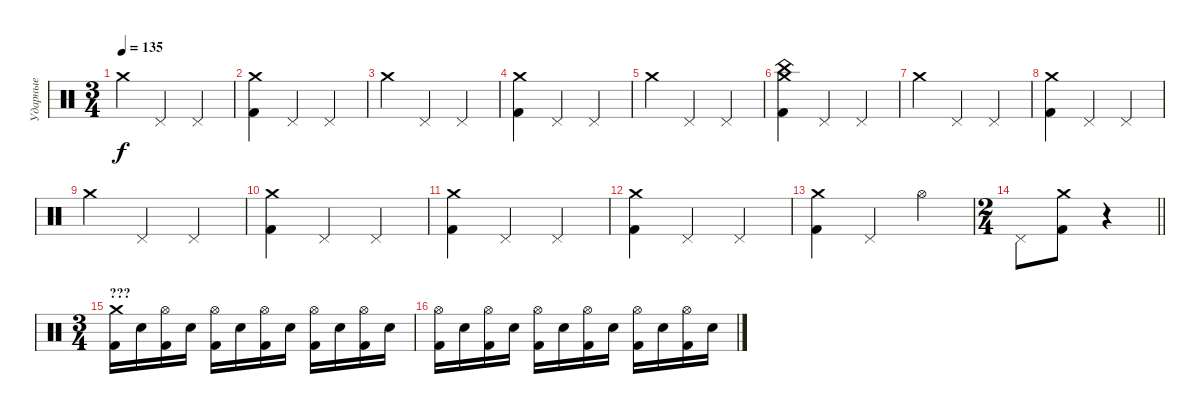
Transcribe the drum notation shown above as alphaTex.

\track ("Ударные" "Ударные") {instrument percussion}
\staff {score}
\articulation defaults
\ts (3 4)
\tempo 135
\clef neutral
\ks c "Crash medium (hit)".4{dy f} "Pedal Hi-Hat (hit)".4 "Pedal Hi-Hat (hit)".4
|
("Crash medium (hit)" "Kick (hit) 2").4 "Pedal Hi-Hat (hit)".4 "Pedal Hi-Hat (hit)".4 |
"Crash medium (hit)".4 "Pedal Hi-Hat (hit)".4 "Pedal Hi-Hat (hit)".4 |
("Crash medium (hit)" "Kick (hit) 2").4 "Pedal Hi-Hat (hit)".4 "Pedal Hi-Hat (hit)".4 |
"Crash medium (hit)".4 "Pedal Hi-Hat (hit)".4 "Pedal Hi-Hat (hit)".4 |
("Crash medium (hit)" "China (hit)" "Kick (hit) 2").4 "Pedal Hi-Hat (hit)".4 "Pedal Hi-Hat (hit)".4 |
"Crash medium (hit)".4 "Pedal Hi-Hat (hit)".4 "Pedal Hi-Hat (hit)".4 |
("Crash medium (hit)" "Kick (hit) 2").4 "Pedal Hi-Hat (hit)".4 "Pedal Hi-Hat (hit)".4 |
"Crash medium (hit)".4 "Pedal Hi-Hat (hit)".4 "Pedal Hi-Hat (hit)".4 |
("Crash medium (hit)" "Kick (hit) 2").4 "Pedal Hi-Hat (hit)".4 "Pedal Hi-Hat (hit)".4 |
("Crash medium (hit)" "Kick (hit) 2").4 "Pedal Hi-Hat (hit)".4 "Pedal Hi-Hat (hit)".4 |
("Crash medium (hit)" "Kick (hit) 2").4 "Pedal Hi-Hat (hit)".4 "Pedal Hi-Hat (hit)".4 |
("Crash medium (hit)" "Kick (hit) 2").4 "Pedal Hi-Hat (hit)".4 "Hi-Hat (open)".4 |
\ts (2 4)
\barLineRight lightlight "Pedal Hi-Hat (hit)".8
("Crash medium (hit)" "Kick (hit) 2").8 r.4 |
\ts (3 4)
\section ("" "???")
("Crash medium (hit)" "Kick (hit) 2").16 "Electric Snare (hit)".16 ("Hi-Hat (open)" "Kick (hit) 2").16 "Electric Snare (hit)".16 ("Hi-Hat (open)" "Kick (hit) 2").16 "Electric Snare (hit)".16 ("Hi-Hat (open)" "Kick (hit) 2").16 "Electric Snare (hit)".16 ("Hi-Hat (open)" "Kick (hit) 2").16 "Electric Snare (hit)".16 ("Hi-Hat (open)" "Kick (hit) 2").16 "Electric Snare (hit)".16 |
("Hi-Hat (open)" "Kick (hit) 2").16 "Electric Snare (hit)".16 ("Hi-Hat (open)" "Kick (hit) 2").16 "Electric Snare (hit)".16 ("Hi-Hat (open)" "Kick (hit) 2").16 "Electric Snare (hit)".16 ("Hi-Hat (open)" "Kick (hit) 2").16 "Electric Snare (hit)".16 ("Hi-Hat (open)" "Kick (hit) 2").16 "Electric Snare (hit)".16 ("Hi-Hat (open)" "Kick (hit) 2").16 "Electric Snare (hit)".16
